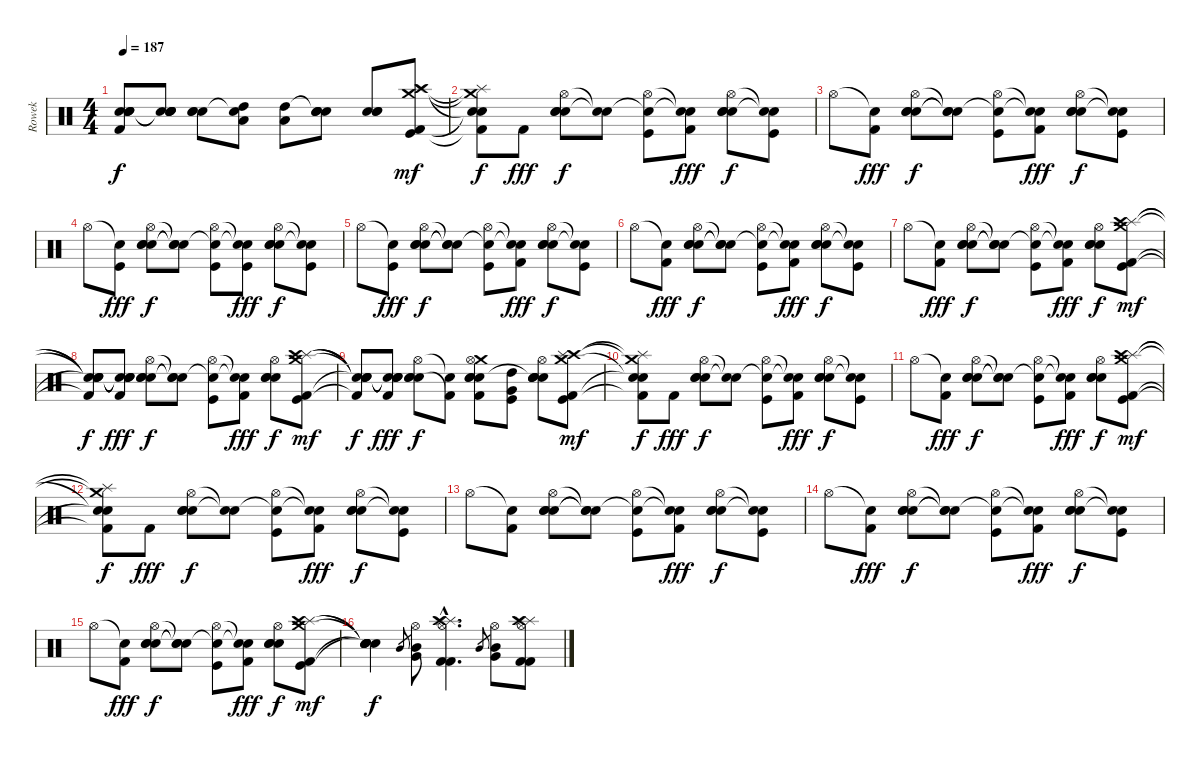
\track ("Rowek" "Rowek") {instrument percussion}
\staff {score}
\articulation defaults
\ts (4 4)
\tempo 187
\clef neutral
\ks c
("Snare (hit)"{t} "Snare (hit)"{t} "Snare (hit)"{t} "Snare (hit)"{t} "Kick (hit) 2"{t}).8{dy f} ("Snare (hit)"{t} "Snare (hit)"{t} "Electric Snare (hit)" "Electric Snare (hit)" "Electric Snare (hit)").8 ("Electric Snare (hit)" "Electric Snare (hit)" "Electric Snare (hit)").8 ("High Tom (hit)" "Low Tom (hit)" "Snare (hit)"{t}).8 ("High Tom (hit)" "Low Tom (hit)").8 ("Snare (hit)"{t} "Electric Snare (hit)" "Electric Snare (hit)" "Electric Snare (hit)").8 ("Electric Snare (hit)" "Electric Snare (hit)" "Electric Snare (hit)").8 ("Crash medium (hit)" "Splash (hit)" "Crash high (hit)" "Kick (hit) 2" "Kick (hit)").8{dy mf} |
("Crash medium (hit)"{t} "Splash (hit)"{t} "Snare (hit)"{t} "Snare (hit)"{t} "Kick (hit) 2"{t}).8{dy f} "Kick (hit) 2".8{dy fff} ("Hi-Hat (open)" "Electric Snare (hit)" "Electric Snare (hit)" "Electric Snare (hit)").8{dy f} ("Snare (hit)"{t} "Snare (hit)"{t}).8 ("Hi-Hat (open)" "Snare (hit)"{t} "Kick (hit)").8 ("Snare (hit)"{t} "Snare (hit)"{t} "Kick (hit) 2").8{dy fff} ("Hi-Hat (open)" "Electric Snare (hit)" "Electric Snare (hit)" "Electric Snare (hit)").8{dy f} ("Snare (hit)"{t} "Snare (hit)"{t} "Kick (hit)").8 |
"Hi-Hat (open)".8 ("Snare (hit)"{t} "Kick (hit) 2").8{dy fff} ("Hi-Hat (open)" "Electric Snare (hit)" "Electric Snare (hit)" "Electric Snare (hit)").8{dy f} ("Snare (hit)"{t} "Snare (hit)"{t} "Snare (hit)"{t}).8 ("Hi-Hat (open)" "Snare (hit)"{t} "Kick (hit)").8 ("Snare (hit)"{t} "Snare (hit)"{t} "Kick (hit) 2").8{dy fff} ("Hi-Hat (open)" "Electric Snare (hit)" "Electric Snare (hit)" "Electric Snare (hit)").8{dy f} ("Snare (hit)"{t} "Snare (hit)"{t} "Kick (hit)").8 |
"Hi-Hat (open)".8 ("Snare (hit)"{t} "Kick (hit)").8{dy fff} ("Hi-Hat (open)" "Electric Snare (hit)" "Electric Snare (hit)" "Electric Snare (hit)").8{dy f} ("Snare (hit)"{t} "Snare (hit)"{t} "Snare (hit)"{t}).8 ("Hi-Hat (open)" "Snare (hit)"{t} "Kick (hit)").8 ("Snare (hit)"{t} "Snare (hit)"{t} "Kick (hit)").8{dy fff} ("Hi-Hat (open)" "Electric Snare (hit)" "Electric Snare (hit)" "Electric Snare (hit)").8{dy f} ("Snare (hit)"{t} "Snare (hit)"{t} "Kick (hit)").8 |
"Hi-Hat (open)".8 ("Snare (hit)"{t} "Kick (hit)").8{dy fff} ("Hi-Hat (open)" "Electric Snare (hit)" "Electric Snare (hit)" "Electric Snare (hit)").8{dy f} ("Snare (hit)"{t} "Snare (hit)"{t} "Snare (hit)"{t}).8 ("Hi-Hat (open)" "Snare (hit)"{t} "Kick (hit)").8 ("Snare (hit)"{t} "Snare (hit)"{t} "Kick (hit) 2").8{dy fff} ("Hi-Hat (open)" "Electric Snare (hit)" "Electric Snare (hit)" "Electric Snare (hit)").8{dy f} ("Snare (hit)"{t} "Snare (hit)"{t} "Kick (hit)").8 |
"Hi-Hat (open)".8 ("Snare (hit)"{t} "Kick (hit) 2").8{dy fff} ("Hi-Hat (open)" "Electric Snare (hit)" "Electric Snare (hit)" "Electric Snare (hit)").8{dy f} ("Snare (hit)"{t} "Snare (hit)"{t} "Snare (hit)"{t}).8 ("Hi-Hat (open)" "Snare (hit)"{t} "Kick (hit)").8 ("Snare (hit)"{t} "Snare (hit)"{t} "Kick (hit) 2").8{dy fff} ("Hi-Hat (open)" "Electric Snare (hit)" "Electric Snare (hit)" "Electric Snare (hit)").8{dy f} ("Snare (hit)"{t} "Snare (hit)"{t} "Kick (hit)").8 |
"Hi-Hat (open)".8 ("Snare (hit)"{t} "Kick (hit) 2").8{dy fff} ("Hi-Hat (open)" "Electric Snare (hit)" "Electric Snare (hit)" "Electric Snare (hit)").8{dy f} ("Snare (hit)"{t} "Snare (hit)"{t} "Snare (hit)"{t}).8 ("Hi-Hat (open)" "Snare (hit)"{t} "Kick (hit)").8 ("Snare (hit)"{t} "Snare (hit)"{t} "Kick (hit) 2").8{dy fff} ("Hi-Hat (open)" "Electric Snare (hit)" "Electric Snare (hit)" "Electric Snare (hit)").8{dy f} ("Crash medium (hit)" "Splash (hit)" "Crash high (hit)" "Kick (hit) 2" "Kick (hit)").8{dy mf} |
("Snare (hit)"{t} "Snare (hit)"{t} "Snare (hit)"{t} "Snare (hit)"{t} "Kick (hit) 2"{t}).8{dy f} ("Snare (hit)"{t} "Snare (hit)"{t} "Snare (hit)"{t} "Snare (hit)"{t} "Kick (hit) 2").8{dy fff} ("Hi-Hat (open)" "Electric Snare (hit)" "Electric Snare (hit)" "Electric Snare (hit)").8{dy f} ("Snare (hit)"{t} "Snare (hit)"{t} "Snare (hit)"{t}).8 ("Hi-Hat (open)" "Snare (hit)"{t} "Kick (hit)").8 ("Snare (hit)"{t} "Snare (hit)"{t} "Kick (hit) 2").8{dy fff} ("Hi-Hat (open)" "Electric Snare (hit)" "Electric Snare (hit)" "Electric Snare (hit)").8{dy f} ("Crash medium (hit)" "Splash (hit)" "Crash high (hit)" "Kick (hit) 2" "Kick (hit)").8{dy mf} |
("Snare (hit)"{t} "Snare (hit)"{t} "Snare (hit)"{t} "Snare (hit)"{t} "Kick (hit) 2"{t}).8{dy f} ("Snare (hit)"{t} "Snare (hit)"{t} "Snare (hit)"{t} "Snare (hit)"{t} "Kick (hit) 2").8{dy fff} ("Hi-Hat (open)" "Electric Snare (hit)" "Electric Snare (hit)" "Electric Snare (hit)").8{dy f} ("Snare (hit)"{t} "Kick (hit) 2"{t}).8 ("Crash medium (hit)" "Electric Snare (hit)" "Hi-Hat (open)" "Electric Snare (hit)" "Electric Snare (hit)" "Kick (hit) 2").8 ("Very Low Tom (hit)" "High Tom (hit)" "Kick (hit)").8 ("Electric Snare (hit)" "Hi-Hat (open)" "Electric Snare (hit)" "Electric Snare (hit)" "Snare (hit)"{t}).8 ("Crash high (hit)" "Splash (hit)" "Crash medium (hit)" "Kick (hit) 2" "Kick (hit)").8{dy mf} |
("Crash medium (hit)"{t} "Splash (hit)"{t} "Snare (hit)"{t} "Snare (hit)"{t} "Kick (hit) 2"{t}).8{dy f} "Kick (hit) 2".8{dy fff} ("Hi-Hat (open)" "Electric Snare (hit)" "Electric Snare (hit)" "Electric Snare (hit)").8{dy f} ("Snare (hit)"{t} "Snare (hit)"{t}).8 ("Hi-Hat (open)" "Snare (hit)"{t} "Kick (hit)").8 ("Snare (hit)"{t} "Snare (hit)"{t} "Kick (hit) 2").8{dy fff} ("Hi-Hat (open)" "Electric Snare (hit)" "Electric Snare (hit)" "Electric Snare (hit)").8{dy f} ("Snare (hit)"{t} "Snare (hit)"{t} "Kick (hit)").8 |
"Hi-Hat (open)".8 ("Snare (hit)"{t} "Kick (hit) 2").8{dy fff} ("Hi-Hat (open)" "Electric Snare (hit)" "Electric Snare (hit)" "Electric Snare (hit)").8{dy f} ("Snare (hit)"{t} "Snare (hit)"{t} "Snare (hit)"{t}).8 ("Hi-Hat (open)" "Snare (hit)"{t} "Kick (hit)").8 ("Snare (hit)"{t} "Snare (hit)"{t} "Kick (hit) 2").8{dy fff} ("Hi-Hat (open)" "Electric Snare (hit)" "Electric Snare (hit)" "Electric Snare (hit)").8{dy f} ("Crash medium (hit)" "Splash (hit)" "Crash high (hit)" "Kick (hit) 2" "Kick (hit)").8{dy mf} |
("Crash medium (hit)"{t} "Splash (hit)"{t} "Snare (hit)"{t} "Snare (hit)"{t} "Kick (hit) 2"{t}).8{dy f} "Kick (hit) 2".8{dy fff} ("Hi-Hat (open)" "Electric Snare (hit)" "Electric Snare (hit)" "Electric Snare (hit)").8{dy f} ("Snare (hit)"{t} "Snare (hit)"{t}).8 ("Hi-Hat (open)" "Snare (hit)"{t} "Kick (hit)").8 ("Snare (hit)"{t} "Snare (hit)"{t} "Kick (hit) 2").8{dy fff} ("Hi-Hat (open)" "Electric Snare (hit)" "Electric Snare (hit)" "Electric Snare (hit)").8{dy f} ("Snare (hit)"{t} "Snare (hit)"{t} "Kick (hit)").8 |
"Hi-Hat (open)".8 ("Snare (hit)"{t} "Kick (hit) 2").8 ("Hi-Hat (open)" "Electric Snare (hit)" "Electric Snare (hit)" "Electric Snare (hit)").8 ("Snare (hit)"{t} "Snare (hit)"{t} "Snare (hit)"{t}).8 ("Hi-Hat (open)" "Snare (hit)"{t} "Kick (hit)").8 ("Snare (hit)"{t} "Snare (hit)"{t} "Kick (hit) 2").8{dy fff} ("Hi-Hat (open)" "Electric Snare (hit)" "Electric Snare (hit)" "Electric Snare (hit)").8{dy f} ("Snare (hit)"{t} "Snare (hit)"{t} "Kick (hit)").8 |
"Hi-Hat (open)".8 ("Snare (hit)"{t} "Kick (hit) 2").8{dy fff} ("Hi-Hat (open)" "Electric Snare (hit)" "Electric Snare (hit)" "Electric Snare (hit)").8{dy f} ("Snare (hit)"{t} "Snare (hit)"{t} "Snare (hit)"{t}).8 ("Hi-Hat (open)" "Snare (hit)"{t} "Kick (hit)").8 ("Snare (hit)"{t} "Snare (hit)"{t} "Kick (hit) 2").8{dy fff} ("Hi-Hat (open)" "Electric Snare (hit)" "Electric Snare (hit)" "Electric Snare (hit)").8{dy f} ("Snare (hit)"{t} "Snare (hit)"{t} "Kick (hit)").8 |
"Hi-Hat (open)".8 ("Snare (hit)"{t} "Kick (hit) 2").8{dy fff} ("Hi-Hat (open)" "Electric Snare (hit)" "Electric Snare (hit)" "Electric Snare (hit)").8{dy f} ("Snare (hit)"{t} "Snare (hit)"{t} "Snare (hit)"{t}).8 ("Hi-Hat (open)" "Snare (hit)"{t} "Kick (hit)").8 ("Snare (hit)"{t} "Snare (hit)"{t} "Kick (hit) 2").8{dy fff} ("Hi-Hat (open)" "Electric Snare (hit)" "Electric Snare (hit)" "Electric Snare (hit)").8{dy f} ("Crash medium (hit)" "Splash (hit)" "Crash high (hit)" "Kick (hit) 2" "Kick (hit)").8{dy mf} |
("Snare (hit)"{t} "Snare (hit)"{t} "Snare (hit)"{t} "Snare (hit)"{t} "Snare (hit)"{t} "Snare (hit)").4{dy f} "Mid Tom (hit)".8{gr} ("Hi-Hat (open)" "Mid Tom (hit)" "Very Low Tom (hit)").8 ("Splash (hit)"{hac} "Splash (hit)"{hac} "Hi-Hat (open)"{hac} "Crash high (hit)"{hac} "Kick (hit) 2"{hac} "Kick (hit) 2"{hac}).4{d} "Mid Tom (hit)".8{gr} ("Hi-Hat (open)" "Mid Tom (hit)" "Very Low Tom (hit)").8 ("Splash (hit)" "Splash (hit)" "Hi-Hat (open)" "Crash high (hit)" "Kick (hit) 2" "Kick (hit) 2").8
